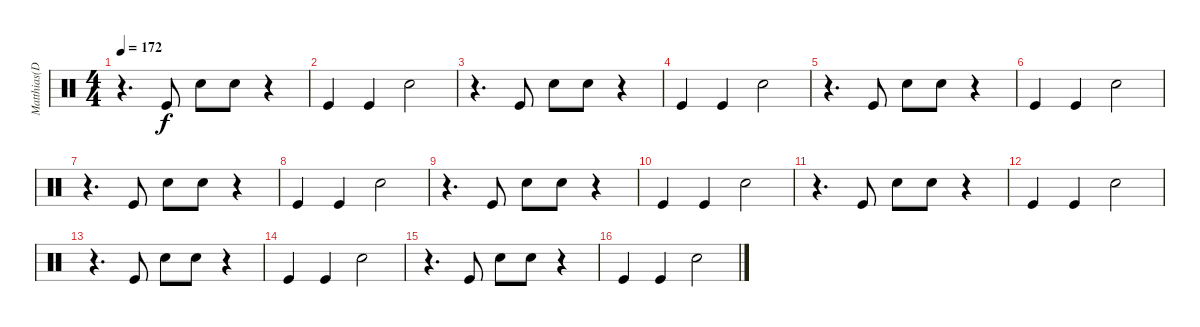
\track ("Matthias(Drums)" "Matthias(D") {instrument percussion}
\staff {score}
\articulation defaults
\ts (4 4)
\tempo 172
\clef neutral
\ks c
r.4{d dy f} "Kick (hit)".8 "Electric Snare (hit)".8 "Electric Snare (hit)".8 r.4 |
"Kick (hit)".4{volume 6} "Kick (hit)".4 "Electric Snare (hit)".2 |
r.4{d} "Kick (hit)".8 "Electric Snare (hit)".8 "Electric Snare (hit)".8 r.4 |
"Kick (hit)".4{volume 6} "Kick (hit)".4 "Electric Snare (hit)".2 |
r.4{d} "Kick (hit)".8 "Electric Snare (hit)".8 "Electric Snare (hit)".8 r.4 |
"Kick (hit)".4{volume 6} "Kick (hit)".4 "Electric Snare (hit)".2 |
r.4{d} "Kick (hit)".8 "Electric Snare (hit)".8 "Electric Snare (hit)".8 r.4 |
"Kick (hit)".4{volume 6} "Kick (hit)".4 "Electric Snare (hit)".2 |
r.4{d} "Kick (hit)".8 "Electric Snare (hit)".8 "Electric Snare (hit)".8 r.4 |
"Kick (hit)".4{volume 6} "Kick (hit)".4 "Electric Snare (hit)".2 |
r.4{d} "Kick (hit)".8 "Electric Snare (hit)".8 "Electric Snare (hit)".8 r.4 |
"Kick (hit)".4{volume 6} "Kick (hit)".4 "Electric Snare (hit)".2 |
r.4{d} "Kick (hit)".8 "Electric Snare (hit)".8 "Electric Snare (hit)".8 r.4 |
"Kick (hit)".4{volume 6} "Kick (hit)".4 "Electric Snare (hit)".2 |
r.4{d} "Kick (hit)".8 "Electric Snare (hit)".8 "Electric Snare (hit)".8 r.4 |
"Kick (hit)".4{volume 6} "Kick (hit)".4 "Electric Snare (hit)".2
